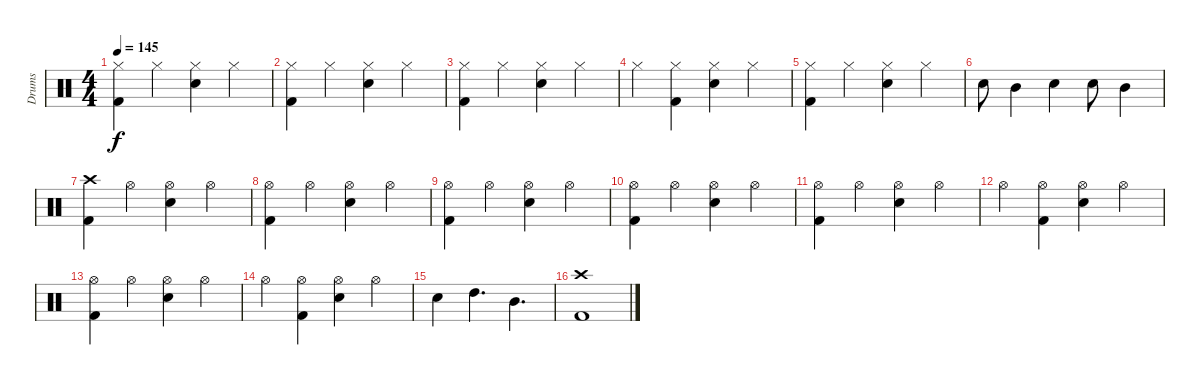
\track ("Drums" "Drums") {instrument percussion}
\staff {score}
\articulation defaults
\ts (4 4)
\tempo 145
\clef neutral
\ks c
("Hi-Hat (closed)" "Kick (hit) 2").4{dy f} "Hi-Hat (closed)".4 ("Hi-Hat (closed)" "Snare (hit) 2").4 "Hi-Hat (closed)".4 |
("Hi-Hat (closed)" "Kick (hit) 2").4 "Hi-Hat (closed)".4 ("Hi-Hat (closed)" "Snare (hit) 2").4 "Hi-Hat (closed)".4 |
("Hi-Hat (closed)" "Kick (hit) 2").4 "Hi-Hat (closed)".4 ("Hi-Hat (closed)" "Snare (hit) 2").4 "Hi-Hat (closed)".4 |
"Hi-Hat (closed)".4 ("Hi-Hat (closed)" "Kick (hit) 2").4 ("Hi-Hat (closed)" "Snare (hit) 2").4 "Hi-Hat (closed)".4 |
("Hi-Hat (closed)" "Kick (hit) 2").4 "Hi-Hat (closed)".4 ("Hi-Hat (closed)" "Snare (hit) 2").4 "Hi-Hat (closed)".4 |
"Snare (hit) 2".8 "Mid Tom (hit)".4 "Snare (hit) 2".4 "Snare (hit) 2".8 "Mid Tom (hit)".4 |
("Crash high (hit)" "Kick (hit) 2").4 "Hi-Hat (open)".4 ("Hi-Hat (open)" "Snare (hit) 2").4 "Hi-Hat (open)".4 |
("Hi-Hat (open)" "Kick (hit) 2").4 "Hi-Hat (open)".4 ("Hi-Hat (open)" "Snare (hit) 2").4 "Hi-Hat (open)".4 |
("Hi-Hat (open)" "Kick (hit) 2").4 "Hi-Hat (open)".4 ("Hi-Hat (open)" "Snare (hit) 2").4 "Hi-Hat (open)".4 |
("Hi-Hat (open)" "Kick (hit) 2").4 "Hi-Hat (open)".4 ("Hi-Hat (open)" "Snare (hit) 2").4 "Hi-Hat (open)".4 |
("Hi-Hat (open)" "Kick (hit) 2").4 "Hi-Hat (open)".4 ("Hi-Hat (open)" "Snare (hit) 2").4 "Hi-Hat (open)".4 |
"Hi-Hat (open)".4 ("Hi-Hat (open)" "Kick (hit) 2").4 ("Hi-Hat (open)" "Snare (hit) 2").4 "Hi-Hat (open)".4 |
("Hi-Hat (open)" "Kick (hit) 2").4 "Hi-Hat (open)".4 ("Hi-Hat (open)" "Snare (hit) 2").4 "Hi-Hat (open)".4 |
"Hi-Hat (open)".4 ("Hi-Hat (open)" "Kick (hit) 2").4 ("Hi-Hat (open)" "Snare (hit) 2").4 "Hi-Hat (open)".4 |
"Snare (hit) 2".4 "High Tom (hit)".4{d} "Mid Tom (hit)".4{d} |
("Crash high (hit)" "Kick (hit) 2").1
